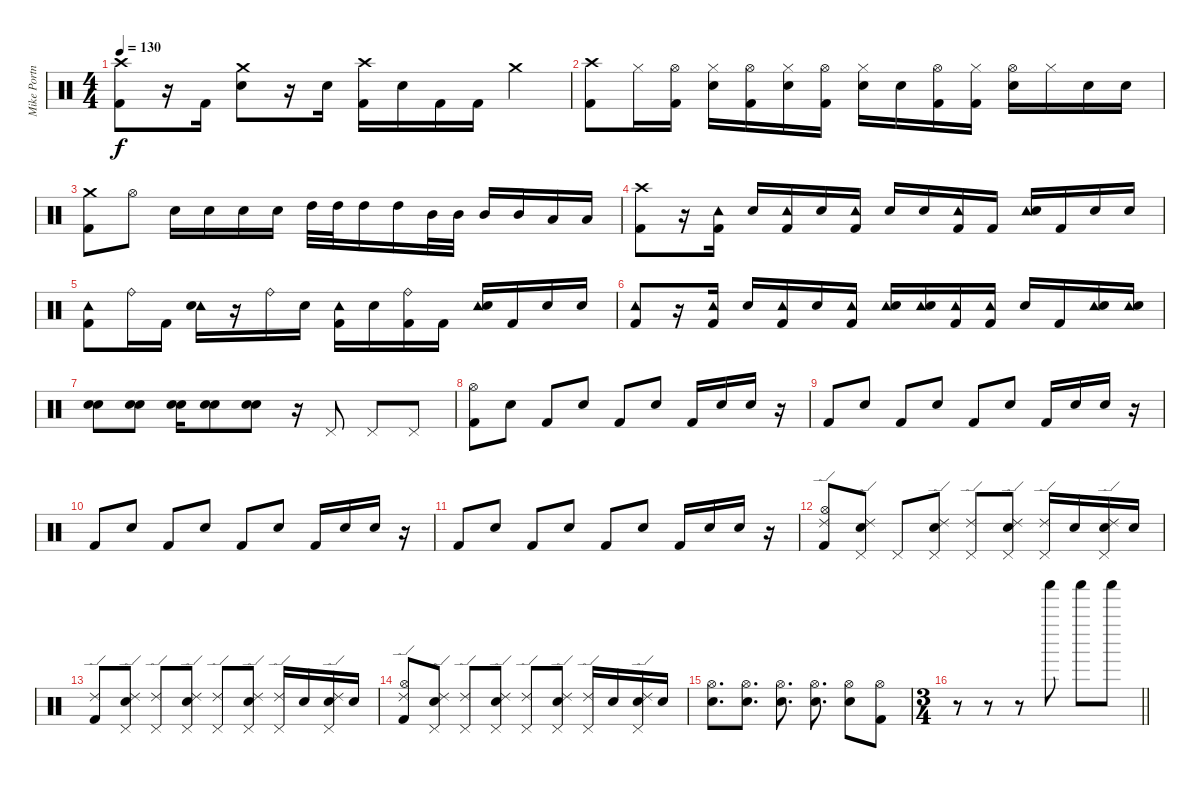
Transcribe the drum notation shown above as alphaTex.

\track ("Mike Portnoy Drums" "Mike Portn") {instrument percussion}
\staff {score}
\articulation defaults
\ts (4 4)
\tempo 130
\clef neutral
\ks c
("Crash high (hit)" "Kick (hit) 2").8{dy f} r.16 "Kick (hit) 2".16 ("Crash medium (hit)" "Snare (hit) 2").8 r.16 "Snare (hit) 2".16 ("Crash high (hit)" "Kick (hit) 2").16 "Snare (hit) 2".16 "Kick (hit) 2".16 "Kick (hit) 2".16 "Crash medium (hit)".4 |
("Crash high (hit)" "Kick (hit) 2").8 "Hi-Hat (closed)".16 ("Hi-Hat (open)" "Kick (hit) 2").16 ("Hi-Hat (closed)" "Snare (hit) 2").16 ("Hi-Hat (open)" "Kick (hit) 2").16 ("Hi-Hat (closed)" "Snare (hit) 2").16 ("Hi-Hat (open)" "Kick (hit) 2").16 ("Hi-Hat (closed)" "Snare (hit) 2").16 "Snare (hit) 2".16 ("Hi-Hat (open)" "Kick (hit) 2").16 ("Hi-Hat (closed)" "Kick (hit) 2").16 ("Hi-Hat (open)" "Snare (hit) 2").16 "Hi-Hat (closed)".16 "Snare (hit) 2".16 "Snare (hit) 2".16 |
("Crash medium (hit)" "Kick (hit) 2").8 "Hi-Hat (open)".8 "Snare (hit) 2".16 "Snare (hit) 2".16 "Snare (hit) 2".16 "Snare (hit) 2".16 "High Tom (hit)".32 "High Tom (hit)".32 "High Tom (hit)".16 "High Tom (hit)".16 "Mid Tom (hit)".32 "Mid Tom (hit)".32 "Mid Tom (hit)".16 "Mid Tom (hit)".16 "Low Tom (hit)".16 "Low Tom (hit)".16 |
("Crash high (hit)" "Kick (hit) 2").8 r.16 ("Tambourine (hit)" "Kick (hit) 2").16 "Snare (hit) 2".16 ("Tambourine (hit)" "Kick (hit) 2").16 "Snare (hit) 2".16 ("Tambourine (hit)" "Kick (hit) 2").16 "Snare (hit) 2".16 "Snare (hit) 2".16 ("Tambourine (hit)" "Kick (hit) 2").16 "Kick (hit) 2".16 ("Tambourine (hit)" "Snare (hit) 2").16 "Kick (hit) 2".16 "Snare (hit) 2".16 "Snare (hit) 2".16 |
("Tambourine (hit)" "Kick (hit) 2").8 "Ride (bell)".16 "Kick (hit) 2".16 ("Tambourine (hit)" "Snare (hit) 2").16 r.16 "Ride (bell)".16 "Snare (hit) 2".16 ("Tambourine (hit)" "Kick (hit) 2").16 "Snare (hit) 2".16 ("Ride (bell)" "Kick (hit) 2").16 "Kick (hit) 2".16 ("Tambourine (hit)" "Snare (hit) 2").16 "Kick (hit) 2".16 "Snare (hit) 2".16 "Snare (hit) 2".16 |
("Tambourine (hit)" "Kick (hit) 2").8 r.16 ("Tambourine (hit)" "Kick (hit) 2").16 "Snare (hit) 2".16 ("Tambourine (hit)" "Kick (hit) 2").16 "Snare (hit) 2".16 ("Tambourine (hit)" "Kick (hit) 2").16 ("Tambourine (hit)" "Snare (hit) 2").16 ("Tambourine (hit)" "Snare (hit) 2").16 ("Tambourine (hit)" "Kick (hit) 2").16 ("Tambourine (hit)" "Kick (hit) 2").16 "Snare (hit) 2".16 "Kick (hit) 2".16 ("Tambourine (hit)" "Snare (hit) 2").16 ("Tambourine (hit)" "Snare (hit) 2").16 |
("Snare (hit) 2" "Snare (hit) 2").8 ("Snare (hit) 2" "Snare (hit) 2").8 ("Snare (hit) 2" "Snare (hit) 2").16 ("Snare (hit) 2" "Snare (hit) 2").8 ("Snare (hit) 2" "Snare (hit) 2").8 r.16 "Pedal Hi-Hat (hit)".8 "Pedal Hi-Hat (hit)".8 "Pedal Hi-Hat (hit)".8 |
("Kick (hit) 2" "Hi-Hat (open)").8 "Snare (hit) 2".8 "Kick (hit) 2".8 "Snare (hit) 2".8 "Kick (hit) 2".8 "Snare (hit) 2".8 "Kick (hit) 2".16 "Snare (hit) 2".16 "Snare (hit) 2".16 r.16 |
"Kick (hit) 2".8 "Snare (hit) 2".8 "Kick (hit) 2".8 "Snare (hit) 2".8 "Kick (hit) 2".8 "Snare (hit) 2".8 "Kick (hit) 2".16 "Snare (hit) 2".16 "Snare (hit) 2".16 r.16 |
"Kick (hit) 2".8 "Snare (hit) 2".8 "Kick (hit) 2".8 "Snare (hit) 2".8 "Kick (hit) 2".8 "Snare (hit) 2".8 "Kick (hit) 2".16 "Snare (hit) 2".16 "Snare (hit) 2".16 r.16 |
"Kick (hit) 2".8 "Snare (hit) 2".8 "Kick (hit) 2".8 "Snare (hit) 2".8 "Kick (hit) 2".8 "Snare (hit) 2".8 "Kick (hit) 2".16 "Snare (hit) 2".16 "Snare (hit) 2".16 r.16 |
("Ride (edge) 2" "Kick (hit) 2" "Hi-Hat (open)").8 ("Pedal Hi-Hat (hit)" "Ride (edge) 2" "Snare (hit) 2").8 "Pedal Hi-Hat (hit)".8 ("Pedal Hi-Hat (hit)" "Ride (edge) 2" "Snare (hit) 2").8 ("Pedal Hi-Hat (hit)" "Ride (edge) 2").8 ("Pedal Hi-Hat (hit)" "Ride (edge) 2" "Snare (hit) 2").8 ("Pedal Hi-Hat (hit)" "Ride (edge) 2").16 "Snare (hit) 2".16 ("Snare (hit) 2" "Pedal Hi-Hat (hit)" "Ride (edge) 2").16 "Snare (hit) 2".16 |
("Ride (edge) 2" "Kick (hit) 2").8 ("Pedal Hi-Hat (hit)" "Ride (edge) 2" "Snare (hit) 2").8 ("Pedal Hi-Hat (hit)" "Ride (edge) 2").8 ("Pedal Hi-Hat (hit)" "Ride (edge) 2" "Snare (hit) 2").8 ("Pedal Hi-Hat (hit)" "Ride (edge) 2").8 ("Pedal Hi-Hat (hit)" "Ride (edge) 2" "Snare (hit) 2").8 ("Pedal Hi-Hat (hit)" "Ride (edge) 2").16 "Snare (hit) 2".16 ("Snare (hit) 2" "Pedal Hi-Hat (hit)" "Ride (edge) 2").16 "Snare (hit) 2".16 |
("Ride (edge) 2" "Kick (hit) 2" "Hi-Hat (open)").8 ("Pedal Hi-Hat (hit)" "Ride (edge) 2" "Snare (hit) 2").8 ("Pedal Hi-Hat (hit)" "Ride (edge) 2").8 ("Pedal Hi-Hat (hit)" "Ride (edge) 2" "Snare (hit) 2").8 ("Pedal Hi-Hat (hit)" "Ride (edge) 2").8 ("Pedal Hi-Hat (hit)" "Ride (edge) 2" "Snare (hit) 2").8 ("Pedal Hi-Hat (hit)" "Ride (edge) 2").16 "Snare (hit) 2".16 ("Snare (hit) 2" "Pedal Hi-Hat (hit)" "Ride (edge) 2").16 "Snare (hit) 2".16 |
("Snare (hit) 2" "Hi-Hat (open)").8{d} ("Hi-Hat (open)" "Snare (hit) 2").8{d} ("Hi-Hat (open)" "Snare (hit) 2").8{d} ("Hi-Hat (open)" "Snare (hit) 2").8{d} ("Hi-Hat (open)" "Snare (hit) 2").8 ("Kick (hit) 2" "Hi-Hat (open)").8 |
\ts (3 4)
\barLineRight lightlight
r.8 r.8 r.8 "Shaker (hit)".8 "Shaker (hit)".8 "Shaker (hit)".8
